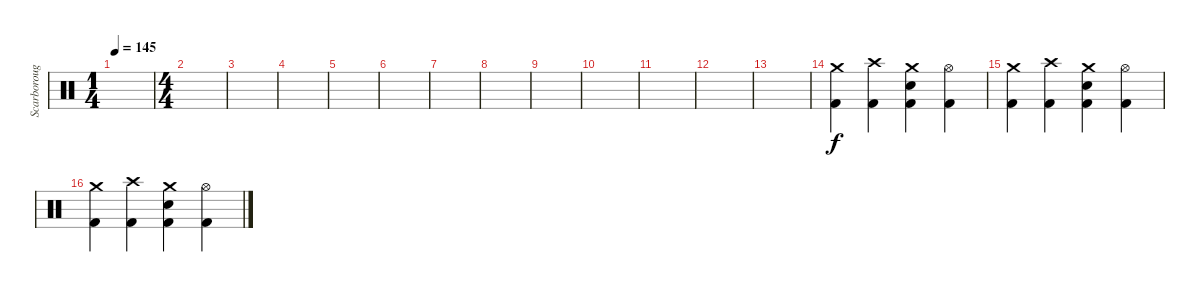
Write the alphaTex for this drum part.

\track ("Scarborough" "Scarboroug") {instrument percussion}
\staff {score}
\articulation defaults
\ts (1 4)
\tempo 145
\clef neutral
\ks c
|
\ts (4 4)
|
|
|
|
|
|
|
|
|
|
|
|
("Crash medium (hit)" "Kick (hit) 2").4 ("Crash high (hit)" "Kick (hit) 2").4 ("Crash medium (hit)" "Kick (hit) 2" "Snare (hit) 2").4 ("Hi-Hat (open)" "Kick (hit) 2").4 |
("Crash medium (hit)" "Kick (hit) 2").4 ("Crash high (hit)" "Kick (hit) 2").4 ("Crash medium (hit)" "Kick (hit) 2" "Snare (hit) 2").4 ("Hi-Hat (open)" "Kick (hit) 2").4 |
("Crash medium (hit)" "Kick (hit) 2").4 ("Crash high (hit)" "Kick (hit) 2").4 ("Crash medium (hit)" "Kick (hit) 2" "Snare (hit) 2").4 ("Hi-Hat (open)" "Kick (hit) 2").4
